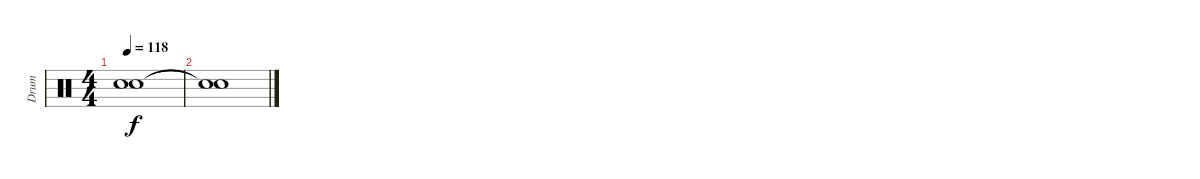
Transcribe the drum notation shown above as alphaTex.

\track ("Drum" "Drum") {instrument percussion}
\staff {score}
\articulation defaults
\ts (4 4)
\tempo 118
\clef neutral
\ks c
("Snare (hit)"{t} "Snare (hit)"{t}).1{dy f} |
("Snare (hit)"{t} "Snare (hit)"{t}).1
